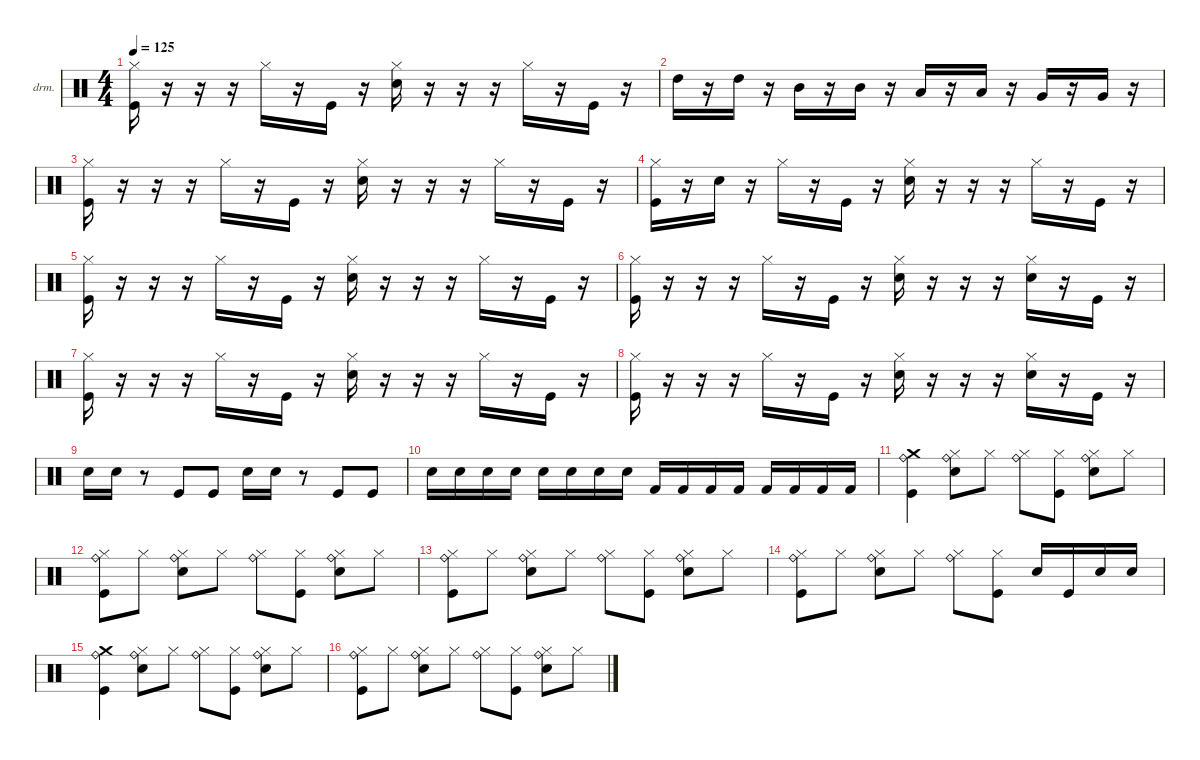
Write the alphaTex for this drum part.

\defaultSystemsLayout 4
\hideDynamics
\bracketExtendMode nobrackets
\firstSystemTrackNameOrientation horizontal
\otherSystemsTrackNameOrientation horizontal
\track ("Drum" "drm.") {instrument percussion}
\staff {score}
\articulation defaults
\ts (4 4)
\tempo 125
\clef neutral
\ks c
("Kick (hit)" "Hi-Hat (closed)").16{dy f} r.16 r.16 r.16 "Hi-Hat (closed)".16 r.16 "Kick (hit)".16 r.16 ("Snare (hit) 2" "Hi-Hat (closed)").16 r.16 r.16 r.16 "Hi-Hat (closed)".16 r.16 "Kick (hit)".16 r.16 |
"High Tom (hit)".16 r.16 "High Tom (hit)".16 r.16 "Mid Tom (hit)".16 r.16 "Mid Tom (hit)".16 r.16 "Low Tom (hit)".16 r.16 "Low Tom (hit)".16 r.16 "Very Low Tom (hit)".16 r.16 "Very Low Tom (hit)".16 r.16 |
("Kick (hit)" "Hi-Hat (closed)").16 r.16 r.16 r.16 "Hi-Hat (closed)".16 r.16 "Kick (hit)".16 r.16 ("Snare (hit) 2" "Hi-Hat (closed)").16 r.16 r.16 r.16 "Hi-Hat (closed)".16 r.16 "Kick (hit)".16 r.16 |
("Kick (hit)" "Hi-Hat (closed)").16 r.16 "Snare (hit) 2".16 r.16 "Hi-Hat (closed)".16 r.16 "Kick (hit)".16 r.16 ("Snare (hit) 2" "Hi-Hat (closed)").16 r.16 r.16 r.16 "Hi-Hat (closed)".16 r.16 "Kick (hit)".16 r.16 |
("Kick (hit)" "Hi-Hat (closed)").16 r.16 r.16 r.16 "Hi-Hat (closed)".16 r.16 "Kick (hit)".16 r.16 ("Snare (hit) 2" "Hi-Hat (closed)").16 r.16 r.16 r.16 "Hi-Hat (closed)".16 r.16 "Kick (hit)".16 r.16 |
("Kick (hit)" "Hi-Hat (closed)").16 r.16 r.16 r.16 "Hi-Hat (closed)".16 r.16 "Kick (hit)".16 r.16 ("Snare (hit) 2" "Hi-Hat (closed)").16 r.16 r.16 r.16 ("Snare (hit) 2" "Hi-Hat (closed)").16 r.16 "Kick (hit)".16 r.16 |
("Kick (hit)" "Hi-Hat (closed)").16 r.16 r.16 r.16 "Hi-Hat (closed)".16 r.16 "Kick (hit)".16 r.16 ("Snare (hit) 2" "Hi-Hat (closed)").16 r.16 r.16 r.16 "Hi-Hat (closed)".16 r.16 "Kick (hit)".16 r.16 |
("Kick (hit)" "Hi-Hat (closed)").16 r.16 r.16 r.16 "Hi-Hat (closed)".16 r.16 "Kick (hit)".16 r.16 ("Snare (hit) 2" "Hi-Hat (closed)").16 r.16 r.16 r.16 ("Snare (hit) 2" "Hi-Hat (closed)").16 r.16 "Kick (hit)".16 r.16 |
"Snare (hit) 2".16 "Snare (hit) 2".16 r.8 "Kick (hit)".8 "Kick (hit)".8 "Snare (hit) 2".16 "Snare (hit) 2".16 r.8 "Kick (hit)".8 "Kick (hit)".8 |
"Snare (hit) 2".16 "Snare (hit) 2".16 "Snare (hit) 2".16 "Snare (hit) 2".16 "Snare (hit) 2".16 "Snare (hit) 2".16 "Snare (hit) 2".16 "Snare (hit) 2".16 "Kick (hit) 2".16 "Kick (hit) 2".16 "Kick (hit) 2".16 "Kick (hit) 2".16 "Kick (hit) 2".16 "Kick (hit) 2".16 "Kick (hit) 2".16 "Kick (hit) 2".16 |
("Kick (hit)" "Crash medium (hit)" "Ride (bell)").4 ("Snare (hit) 2" "Hi-Hat (closed)" "Ride (bell)").8 "Hi-Hat (closed)".8 ("Hi-Hat (closed)" "Ride (bell)").8 ("Kick (hit)" "Hi-Hat (closed)").8 ("Snare (hit) 2" "Hi-Hat (closed)" "Ride (bell)").8 "Hi-Hat (closed)".8 |
("Kick (hit)" "Hi-Hat (closed)" "Ride (bell)").8 "Hi-Hat (closed)".8 ("Snare (hit) 2" "Hi-Hat (closed)" "Ride (bell)").8 "Hi-Hat (closed)".8 ("Hi-Hat (closed)" "Ride (bell)").8 ("Kick (hit)" "Hi-Hat (closed)").8 ("Snare (hit) 2" "Hi-Hat (closed)" "Ride (bell)").8 "Hi-Hat (closed)".8 |
("Kick (hit)" "Hi-Hat (closed)" "Ride (bell)").8 "Hi-Hat (closed)".8 ("Snare (hit) 2" "Hi-Hat (closed)" "Ride (bell)").8 "Hi-Hat (closed)".8 ("Hi-Hat (closed)" "Ride (bell)").8 ("Kick (hit)" "Hi-Hat (closed)").8 ("Snare (hit) 2" "Hi-Hat (closed)" "Ride (bell)").8 "Hi-Hat (closed)".8 |
("Kick (hit)" "Hi-Hat (closed)" "Ride (bell)").8 "Hi-Hat (closed)".8 ("Snare (hit) 2" "Hi-Hat (closed)" "Ride (bell)").8 "Hi-Hat (closed)".8 ("Hi-Hat (closed)" "Ride (bell)").8 ("Kick (hit)" "Hi-Hat (closed)").8 "Snare (hit) 2".16 "Kick (hit)".16 "Snare (hit) 2".16 "Snare (hit) 2".16 |
("Kick (hit)" "Crash medium (hit)" "Ride (bell)").4 ("Snare (hit) 2" "Hi-Hat (closed)" "Ride (bell)").8 "Hi-Hat (closed)".8 ("Hi-Hat (closed)" "Ride (bell)").8 ("Kick (hit)" "Hi-Hat (closed)").8 ("Snare (hit) 2" "Hi-Hat (closed)" "Ride (bell)").8 "Hi-Hat (closed)".8 |
("Kick (hit)" "Hi-Hat (closed)" "Ride (bell)").8 "Hi-Hat (closed)".8 ("Snare (hit) 2" "Hi-Hat (closed)" "Ride (bell)").8 "Hi-Hat (closed)".8 ("Hi-Hat (closed)" "Ride (bell)").8 ("Kick (hit)" "Hi-Hat (closed)").8 ("Snare (hit) 2" "Hi-Hat (closed)" "Ride (bell)").8 "Hi-Hat (closed)".8
